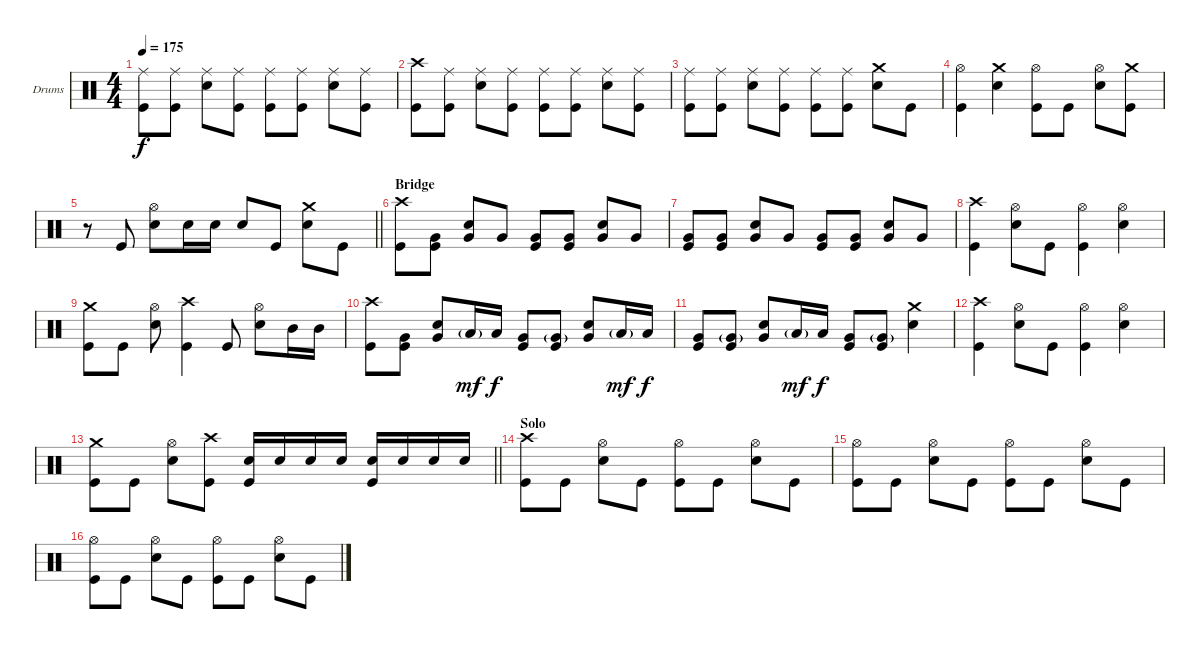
\bracketExtendMode groupsimilarinstruments
\firstSystemTrackNameOrientation horizontal
\otherSystemsTrackNameOrientation horizontal
\track ("Drumkit" "Drums") {instrument percussion}
\staff {score}
\articulation defaults
\ts (4 4)
\tempo 175
\clef neutral
\ks c
("Ride (middle)" "Kick (hit)").8{dy f} ("Ride (middle)" "Kick (hit)").8 ("Ride (middle)" "Snare (hit) 2").8 ("Ride (middle)" "Kick (hit)").8 ("Ride (middle)" "Kick (hit)").8 ("Ride (middle)" "Kick (hit)").8 ("Ride (middle)" "Snare (hit) 2").8 ("Ride (middle)" "Kick (hit)").8 |
("Crash high (hit)" "Kick (hit)").8 ("Ride (middle)" "Kick (hit)").8 ("Ride (middle)" "Snare (hit) 2").8 ("Ride (middle)" "Kick (hit)").8 ("Ride (middle)" "Kick (hit)").8 ("Ride (middle)" "Kick (hit)").8 ("Ride (middle)" "Snare (hit) 2").8 ("Ride (middle)" "Kick (hit)").8 |
("Ride (middle)" "Kick (hit)").8 ("Ride (middle)" "Kick (hit)").8 ("Ride (middle)" "Snare (hit) 2").8 ("Ride (middle)" "Kick (hit)").8 ("Ride (middle)" "Kick (hit)").8 ("Ride (middle)" "Kick (hit)").8 ("Crash medium (hit)" "Snare (hit) 2").8 "Kick (hit)".8 |
("Hi-Hat (open)" "Kick (hit)").4 ("Crash medium (hit)" "Snare (hit) 2").4 ("Hi-Hat (open)" "Kick (hit)").8 "Kick (hit)".8 ("Hi-Hat (open)" "Snare (hit) 2").8 ("Crash medium (hit)" "Kick (hit)").8 |
\barLineRight lightlight
r.8 "Kick (hit)".8 ("Hi-Hat (open)" "Snare (hit) 2").8 "Snare (hit) 2".16 "Snare (hit) 2".16 "Snare (hit) 2".8 "Kick (hit)".8 ("Crash medium (hit)" "Snare (hit) 2").8 "Kick (hit)".8 |
\section ("" "Bridge")
("Crash high (hit)" "Kick (hit)").8 ("Very Low Tom (hit)" "Kick (hit)").8 ("Very Low Tom (hit)" "Snare (hit) 2").8 "Very Low Tom (hit)".8 ("Very Low Tom (hit)" "Kick (hit)").8 ("Very Low Tom (hit)" "Kick (hit)").8 ("Very Low Tom (hit)" "Snare (hit) 2").8 "Very Low Tom (hit)".8 |
("Very Low Tom (hit)" "Kick (hit)").8 ("Very Low Tom (hit)" "Kick (hit)").8 ("Very Low Tom (hit)" "Snare (hit) 2").8 "Very Low Tom (hit)".8 ("Very Low Tom (hit)" "Kick (hit)").8 ("Very Low Tom (hit)" "Kick (hit)").8 ("Very Low Tom (hit)" "Snare (hit) 2").8 "Very Low Tom (hit)".8 |
("Crash high (hit)" "Kick (hit)").4 ("Hi-Hat (open)" "Snare (hit) 2").8 "Kick (hit)".8 ("Hi-Hat (open)" "Kick (hit)").4 ("Hi-Hat (open)" "Snare (hit) 2").4 |
("Crash medium (hit)" "Kick (hit)").8 "Kick (hit)".8 ("Hi-Hat (open)" "Snare (hit) 2").8 ("Crash high (hit)" "Kick (hit)").4 "Kick (hit)".8 ("Hi-Hat (open)" "Snare (hit) 2").8 "Mid Tom (hit)".16 "Mid Tom (hit)".16 |
("Crash high (hit)" "Kick (hit)").8 ("Very Low Tom (hit)" "Kick (hit)").8 ("Very Low Tom (hit)" "Snare (hit) 2").8 "Low Tom (hit)"{g}.16{dy mf} "Low Tom (hit)".16{dy f} ("Very Low Tom (hit)" "Kick (hit)").8 ("Very Low Tom (hit)"{g} "Kick (hit)").8 ("Very Low Tom (hit)" "Snare (hit) 2").8 "Low Tom (hit)"{g}.16{dy mf} "Low Tom (hit)".16{dy f} |
("Very Low Tom (hit)" "Kick (hit)").8 ("Very Low Tom (hit)"{g} "Kick (hit)").8 ("Very Low Tom (hit)" "Snare (hit) 2").8 "Low Tom (hit)"{g}.16{dy mf} "Low Tom (hit)".16{dy f} ("Very Low Tom (hit)" "Kick (hit)").8 ("Very Low Tom (hit)"{g} "Kick (hit)").8 ("Crash medium (hit)" "Snare (hit) 2").4 |
("Crash high (hit)" "Kick (hit)").4 ("Hi-Hat (open)" "Snare (hit) 2").8 "Kick (hit)".8 ("Hi-Hat (open)" "Kick (hit)").4 ("Hi-Hat (open)" "Snare (hit) 2").4 |
\barLineRight lightlight
("Crash medium (hit)" "Kick (hit)").8 "Kick (hit)".8 ("Hi-Hat (open)" "Snare (hit) 2").8 ("Crash high (hit)" "Kick (hit)").8 ("Snare (hit) 2" "Kick (hit)").16 "Snare (hit) 2".16 "Snare (hit) 2".16 "Snare (hit) 2".16 ("Snare (hit) 2" "Kick (hit)").16 "Snare (hit) 2".16 "Snare (hit) 2".16 "Snare (hit) 2".16 |
\section ("" "Solo")
("Crash high (hit)" "Kick (hit)").8 "Kick (hit)".8 ("Hi-Hat (open)" "Snare (hit) 2").8 "Kick (hit)".8 ("Hi-Hat (open)" "Kick (hit)").8 "Kick (hit)".8 ("Hi-Hat (open)" "Snare (hit) 2").8 "Kick (hit)".8 |
("Hi-Hat (open)" "Kick (hit)").8 "Kick (hit)".8 ("Hi-Hat (open)" "Snare (hit) 2").8 "Kick (hit)".8 ("Hi-Hat (open)" "Kick (hit)").8 "Kick (hit)".8 ("Hi-Hat (open)" "Snare (hit) 2").8 "Kick (hit)".8 |
("Hi-Hat (open)" "Kick (hit)").8 "Kick (hit)".8 ("Hi-Hat (open)" "Snare (hit) 2").8 "Kick (hit)".8 ("Hi-Hat (open)" "Kick (hit)").8 "Kick (hit)".8 ("Hi-Hat (open)" "Snare (hit) 2").8 "Kick (hit)".8
